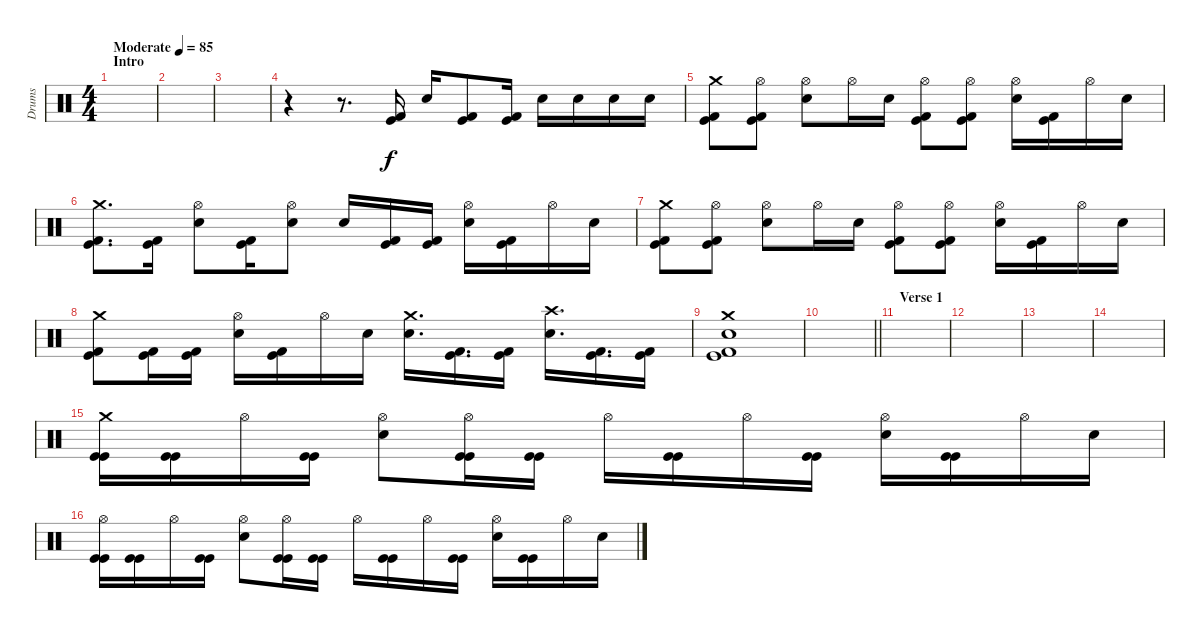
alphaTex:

\track ("Drums" "Drums") {instrument percussion}
\staff {score}
\articulation defaults
\ts (4 4)
\section ("" "Intro")
\tempo (85 "Moderate")
\clef neutral
\ks c
|
|
|
r.4 r.8{d} ("Kick (hit) 2" "Kick (hit)").16 "Electric Snare (hit)".16 ("Kick (hit) 2" "Kick (hit)").8 ("Kick (hit) 2" "Kick (hit)").16 "Electric Snare (hit)".16 "Electric Snare (hit)".16 "Electric Snare (hit)".16 "Electric Snare (hit)".16 |
("Crash medium (hit)" "Kick (hit) 2" "Kick (hit)").8 ("Hi-Hat (open)" "Kick (hit)" "Kick (hit) 2").8 ("Electric Snare (hit)" "Hi-Hat (open)").8 "Hi-Hat (open)".16 "Electric Snare (hit)".16 ("Hi-Hat (open)" "Kick (hit) 2" "Kick (hit)").8 ("Hi-Hat (open)" "Kick (hit)" "Kick (hit) 2").8 ("Electric Snare (hit)" "Hi-Hat (open)").16 ("Kick (hit) 2" "Kick (hit)").16 "Hi-Hat (open)".16 "Electric Snare (hit)".16 |
("Crash medium (hit)" "Kick (hit) 2" "Kick (hit)").8{d} ("Kick (hit) 2" "Kick (hit)").16 ("Electric Snare (hit)" "Hi-Hat (open)").8 ("Kick (hit) 2" "Kick (hit)").16 ("Electric Snare (hit)" "Hi-Hat (open)").8 "Electric Snare (hit)".16 ("Kick (hit) 2" "Kick (hit)").16 ("Kick (hit) 2" "Kick (hit)").16 ("Electric Snare (hit)" "Hi-Hat (open)").16 ("Kick (hit) 2" "Kick (hit)").16 "Hi-Hat (open)".16 "Electric Snare (hit)".16 |
("Crash medium (hit)" "Kick (hit) 2" "Kick (hit)").8 ("Hi-Hat (open)" "Kick (hit)" "Kick (hit) 2").8 ("Electric Snare (hit)" "Hi-Hat (open)").8 "Hi-Hat (open)".16 "Electric Snare (hit)".16 ("Hi-Hat (open)" "Kick (hit) 2" "Kick (hit)").8 ("Hi-Hat (open)" "Kick (hit)" "Kick (hit) 2").8 ("Electric Snare (hit)" "Hi-Hat (open)").16 ("Kick (hit) 2" "Kick (hit)").16 "Hi-Hat (open)".16 "Electric Snare (hit)".16 |
("Crash medium (hit)" "Kick (hit) 2" "Kick (hit)").8 ("Kick (hit) 2" "Kick (hit)").16 ("Kick (hit) 2" "Kick (hit)").16 ("Electric Snare (hit)" "Hi-Hat (open)").16 ("Kick (hit) 2" "Kick (hit)").16 "Hi-Hat (open)".16 "Electric Snare (hit)".16 ("Electric Snare (hit)" "Crash medium (hit)").16{d} ("Kick (hit)" "Kick (hit) 2").16{d} ("Kick (hit)" "Kick (hit) 2").16 ("Electric Snare (hit)" "Crash high (hit)").16{d} ("Kick (hit)" "Kick (hit) 2").16{d} ("Kick (hit)" "Kick (hit) 2").16 |
("Electric Snare (hit)" "Crash medium (hit)" "Kick (hit) 2" "Kick (hit)").1 |
\barLineRight lightlight
|
\section ("" "Verse 1")
|
|
|
|
("Crash medium (hit)" "Kick (hit)" "Kick (hit)").16 ("Kick (hit)" "Kick (hit)").16 "Hi-Hat (open)".16 ("Kick (hit)" "Kick (hit)").16 ("Electric Snare (hit)" "Hi-Hat (open)").8 ("Hi-Hat (open)" "Kick (hit)" "Kick (hit)").16 ("Kick (hit)" "Kick (hit)").16 "Hi-Hat (open)".16 ("Kick (hit)" "Kick (hit)").16 "Hi-Hat (open)".16 ("Kick (hit)" "Kick (hit)").16 ("Electric Snare (hit)" "Hi-Hat (open)").16 ("Kick (hit)" "Kick (hit)").16 "Hi-Hat (open)".16 "Electric Snare (hit)".16 |
("Hi-Hat (open)" "Kick (hit)" "Kick (hit)").16 ("Kick (hit)" "Kick (hit)").16 "Hi-Hat (open)".16 ("Kick (hit)" "Kick (hit)").16 ("Electric Snare (hit)" "Hi-Hat (open)").8 ("Hi-Hat (open)" "Kick (hit)" "Kick (hit)").16 ("Kick (hit)" "Kick (hit)").16 "Hi-Hat (open)".16 ("Kick (hit)" "Kick (hit)").16 "Hi-Hat (open)".16 ("Kick (hit)" "Kick (hit)").16 ("Electric Snare (hit)" "Hi-Hat (open)").16 ("Kick (hit)" "Kick (hit)").16 "Hi-Hat (open)".16 "Electric Snare (hit)".16
